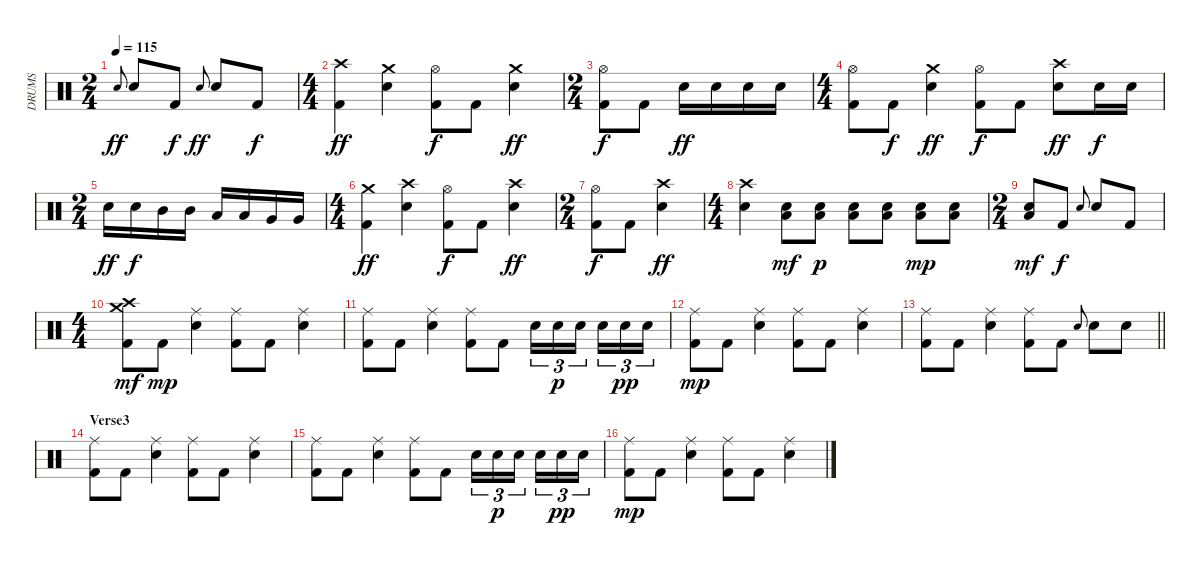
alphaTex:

\track ("DRUMS" "DRUMS") {instrument percussion}
\staff {score}
\articulation defaults
\ts (2 4)
\tempo 115
\clef neutral
\ks c "Electric Snare (hit)".8{gr onbeat dy ff} "Snare (hit) 2".8 "Kick (hit) 2".8{dy f} "Electric Snare (hit)".8{gr onbeat dy ff} "Snare (hit) 2".8 "Kick (hit) 2".8{dy f}
|
\ts (4 4)
("Crash high (hit)" "Kick (hit) 2").4{dy ff} ("Crash medium (hit)" "Snare (hit) 2").4 ("Hi-Hat (open)" "Kick (hit) 2").8{dy f} "Kick (hit) 2".8 ("Crash medium (hit)" "Snare (hit) 2").4{dy ff} |
\ts (2 4)
("Hi-Hat (open)" "Kick (hit) 2").8{dy f} "Kick (hit) 2".8 "Electric Snare (hit)".16{dy ff} "Snare (hit) 2".16 "Electric Snare (hit)".16 "Snare (hit) 2".16 |
\ts (4 4)
("Hi-Hat (open)" "Kick (hit) 2").8 "Kick (hit) 2".8{dy f} ("Crash medium (hit)" "Snare (hit) 2").4{dy ff} ("Hi-Hat (open)" "Kick (hit) 2").8{dy f} "Kick (hit) 2".8 ("Crash high (hit)" "Snare (hit) 2").8{dy ff} "Electric Snare (hit)".16{dy f} "Snare (hit) 2".16 |
\ts (2 4)
"Electric Snare (hit)".16{dy ff} "Snare (hit) 2".16{dy f} "Mid Tom (hit)".16 "Mid Tom (hit)".16 "Low Tom (hit)".16 "Low Tom (hit)".16 "Very Low Tom (hit)".16 "Very Low Tom (hit)".16 |
\ts (4 4)
("Crash medium (hit)" "Kick (hit) 2").4{dy ff} ("Crash high (hit)" "Snare (hit) 2").4 ("Hi-Hat (open)" "Kick (hit) 2").8{dy f} "Kick (hit) 2".8 ("Crash high (hit)" "Snare (hit) 2").4{dy ff} |
\ts (2 4)
("Hi-Hat (open)" "Kick (hit) 2").8{dy f} "Kick (hit) 2".8 ("Crash high (hit)" "Snare (hit) 2").4{dy ff} |
\ts (4 4)
("Crash high (hit)" "Snare (hit) 2").4 ("Snare (hit) 2" "Low Floor Tom (hit)").8{dy mf} ("Snare (hit) 2" "Low Floor Tom (hit)").8{dy p} ("Snare (hit) 2" "Low Floor Tom (hit)").8 ("Snare (hit) 2" "Low Floor Tom (hit)").8 ("Snare (hit) 2" "Low Floor Tom (hit)").8{dy mp} ("Snare (hit) 2" "Low Floor Tom (hit)").8 |
\ts (2 4)
("Snare (hit) 2" "Low Floor Tom (hit)").8{dy mf} "Kick (hit) 2".8{dy f} "Electric Snare (hit)".8{gr onbeat} "Snare (hit) 2".8 "Kick (hit) 2".8 |
\ts (4 4)
("Crash medium (hit)" "Crash high (hit)" "Kick (hit) 2").8{dy mf} "Kick (hit) 2".8{dy mp} ("Ride (middle)" "Snare (hit) 2").4 ("Ride (middle)" "Kick (hit) 2").8 "Kick (hit) 2".8 ("Ride (middle)" "Snare (hit) 2").4 |
("Ride (middle)" "Kick (hit) 2").8 "Kick (hit) 2".8 ("Ride (middle)" "Snare (hit) 2").4 ("Ride (middle)" "Kick (hit) 2").8 "Kick (hit) 2".8 "Electric Snare (hit)".16{tu (3 2)} "Snare (hit) 2".16{tu (3 2) dy p} "Electric Snare (hit)".16{tu (3 2) beam splitsecondary} "Snare (hit) 2".16{tu (3 2)} "Electric Snare (hit)".16{tu (3 2) dy pp} "Snare (hit) 2".16{tu (3 2)} |
("Ride (middle)" "Kick (hit) 2").8{dy mp} "Kick (hit) 2".8 ("Ride (middle)" "Snare (hit) 2").4 ("Ride (middle)" "Kick (hit) 2").8 "Kick (hit) 2".8 ("Ride (middle)" "Snare (hit) 2").4 |
\barLineRight lightlight
("Ride (middle)" "Kick (hit) 2").8 "Kick (hit) 2".8 ("Ride (middle)" "Snare (hit) 2").4 ("Ride (middle)" "Kick (hit) 2").8 "Kick (hit) 2".8 "Electric Snare (hit)".8{gr onbeat} "Snare (hit) 2".8 "Snare (hit) 2".8 |
\section ("" "Verse3")
("Ride (middle)" "Kick (hit) 2").8 "Kick (hit) 2".8 ("Ride (middle)" "Snare (hit) 2").4 ("Ride (middle)" "Kick (hit) 2").8 "Kick (hit) 2".8 ("Ride (middle)" "Snare (hit) 2").4 |
("Ride (middle)" "Kick (hit) 2").8 "Kick (hit) 2".8 ("Ride (middle)" "Snare (hit) 2").4 ("Ride (middle)" "Kick (hit) 2").8 "Kick (hit) 2".8 "Electric Snare (hit)".16{tu (3 2)} "Snare (hit) 2".16{tu (3 2) dy p} "Electric Snare (hit)".16{tu (3 2) beam splitsecondary} "Snare (hit) 2".16{tu (3 2)} "Electric Snare (hit)".16{tu (3 2) dy pp} "Snare (hit) 2".16{tu (3 2)} |
("Ride (middle)" "Kick (hit) 2").8{dy mp} "Kick (hit) 2".8 ("Ride (middle)" "Snare (hit) 2").4 ("Ride (middle)" "Kick (hit) 2").8 "Kick (hit) 2".8 ("Ride (middle)" "Snare (hit) 2").4
